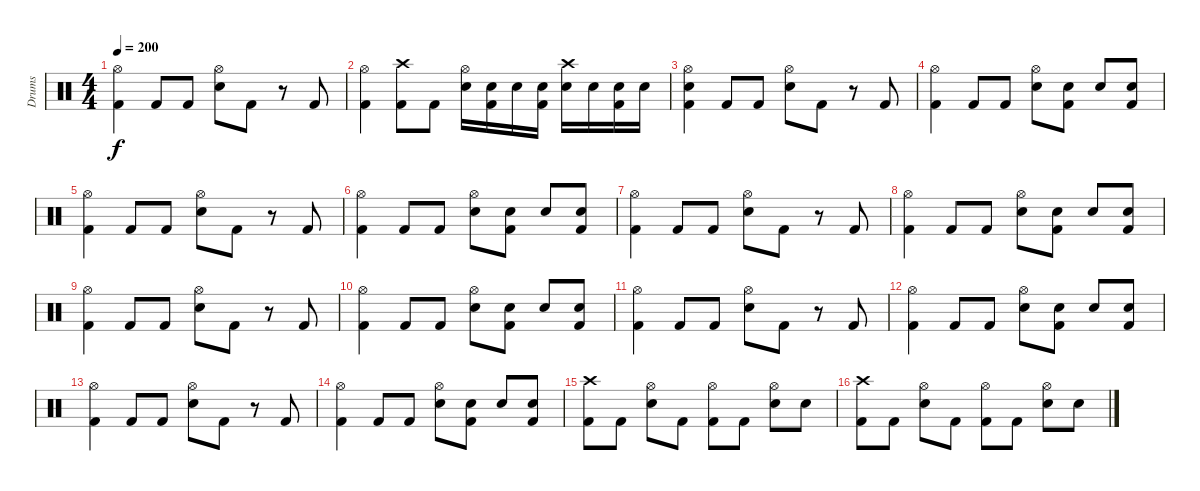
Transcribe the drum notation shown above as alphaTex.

\track ("Drums" "Drums") {instrument percussion}
\staff {score}
\articulation defaults
\ts (4 4)
\tempo 200
\clef neutral
\ks c
("Hi-Hat (open)" "Kick (hit) 2").4{dy f} "Kick (hit) 2".8 "Kick (hit) 2".8 ("Hi-Hat (open)" "Electric Snare (hit)").8 "Kick (hit) 2".8 r.8 "Kick (hit) 2".8 |
("Hi-Hat (open)" "Kick (hit) 2").4 ("Crash high (hit)" "Kick (hit) 2").8 "Kick (hit) 2".8 ("Hi-Hat (open)" "Electric Snare (hit)").16 ("Electric Snare (hit)" "Kick (hit) 2").16 "Electric Snare (hit)".16 ("Electric Snare (hit)" "Kick (hit) 2").16 ("Crash high (hit)" "Electric Snare (hit)").16 "Electric Snare (hit)".16 ("Electric Snare (hit)" "Kick (hit) 2").16 "Electric Snare (hit)".16 |
("Hi-Hat (open)" "Electric Snare (hit)" "Kick (hit) 2").4 "Kick (hit) 2".8 "Kick (hit) 2".8 ("Hi-Hat (open)" "Electric Snare (hit)").8 "Kick (hit) 2".8 r.8 "Kick (hit) 2".8 |
("Hi-Hat (open)" "Kick (hit) 2").4 "Kick (hit) 2".8 "Kick (hit) 2".8 ("Hi-Hat (open)" "Electric Snare (hit)").8 ("Electric Snare (hit)" "Kick (hit) 2").8 "Electric Snare (hit)".8 ("Electric Snare (hit)" "Kick (hit) 2").8 |
("Hi-Hat (open)" "Kick (hit) 2").4 "Kick (hit) 2".8 "Kick (hit) 2".8 ("Hi-Hat (open)" "Electric Snare (hit)").8 "Kick (hit) 2".8 r.8 "Kick (hit) 2".8 |
("Hi-Hat (open)" "Kick (hit) 2").4 "Kick (hit) 2".8 "Kick (hit) 2".8 ("Hi-Hat (open)" "Electric Snare (hit)").8 ("Electric Snare (hit)" "Kick (hit) 2").8 "Electric Snare (hit)".8 ("Electric Snare (hit)" "Kick (hit) 2").8 |
("Hi-Hat (open)" "Kick (hit) 2").4 "Kick (hit) 2".8 "Kick (hit) 2".8 ("Hi-Hat (open)" "Electric Snare (hit)").8 "Kick (hit) 2".8 r.8 "Kick (hit) 2".8 |
("Hi-Hat (open)" "Kick (hit) 2").4 "Kick (hit) 2".8 "Kick (hit) 2".8 ("Hi-Hat (open)" "Electric Snare (hit)").8 ("Electric Snare (hit)" "Kick (hit) 2").8 "Electric Snare (hit)".8 ("Electric Snare (hit)" "Kick (hit) 2").8 |
("Hi-Hat (open)" "Kick (hit) 2").4 "Kick (hit) 2".8 "Kick (hit) 2".8 ("Hi-Hat (open)" "Electric Snare (hit)").8 "Kick (hit) 2".8 r.8 "Kick (hit) 2".8 |
("Hi-Hat (open)" "Kick (hit) 2").4 "Kick (hit) 2".8 "Kick (hit) 2".8 ("Hi-Hat (open)" "Electric Snare (hit)").8 ("Electric Snare (hit)" "Kick (hit) 2").8 "Electric Snare (hit)".8 ("Electric Snare (hit)" "Kick (hit) 2").8 |
("Hi-Hat (open)" "Kick (hit) 2").4 "Kick (hit) 2".8 "Kick (hit) 2".8 ("Hi-Hat (open)" "Electric Snare (hit)").8 "Kick (hit) 2".8 r.8 "Kick (hit) 2".8 |
("Hi-Hat (open)" "Kick (hit) 2").4 "Kick (hit) 2".8 "Kick (hit) 2".8 ("Hi-Hat (open)" "Electric Snare (hit)").8 ("Electric Snare (hit)" "Kick (hit) 2").8 "Electric Snare (hit)".8 ("Electric Snare (hit)" "Kick (hit) 2").8 |
("Hi-Hat (open)" "Kick (hit) 2").4 "Kick (hit) 2".8 "Kick (hit) 2".8 ("Hi-Hat (open)" "Electric Snare (hit)").8 "Kick (hit) 2".8 r.8 "Kick (hit) 2".8 |
("Hi-Hat (open)" "Kick (hit) 2").4 "Kick (hit) 2".8 "Kick (hit) 2".8 ("Hi-Hat (open)" "Electric Snare (hit)").8 ("Electric Snare (hit)" "Kick (hit) 2").8 "Electric Snare (hit)".8 ("Electric Snare (hit)" "Kick (hit) 2").8 |
("Crash high (hit)" "Kick (hit) 2").8 "Kick (hit) 2".8 ("Hi-Hat (open)" "Electric Snare (hit)").8 "Kick (hit) 2".8 ("Hi-Hat (open)" "Kick (hit) 2").8 "Kick (hit) 2".8 ("Hi-Hat (open)" "Electric Snare (hit)").8 "Electric Snare (hit)".8 |
("Crash high (hit)" "Kick (hit) 2").8 "Kick (hit) 2".8 ("Hi-Hat (open)" "Electric Snare (hit)").8 "Kick (hit) 2".8 ("Hi-Hat (open)" "Kick (hit) 2").8 "Kick (hit) 2".8 ("Hi-Hat (open)" "Electric Snare (hit)").8 "Electric Snare (hit)".8
